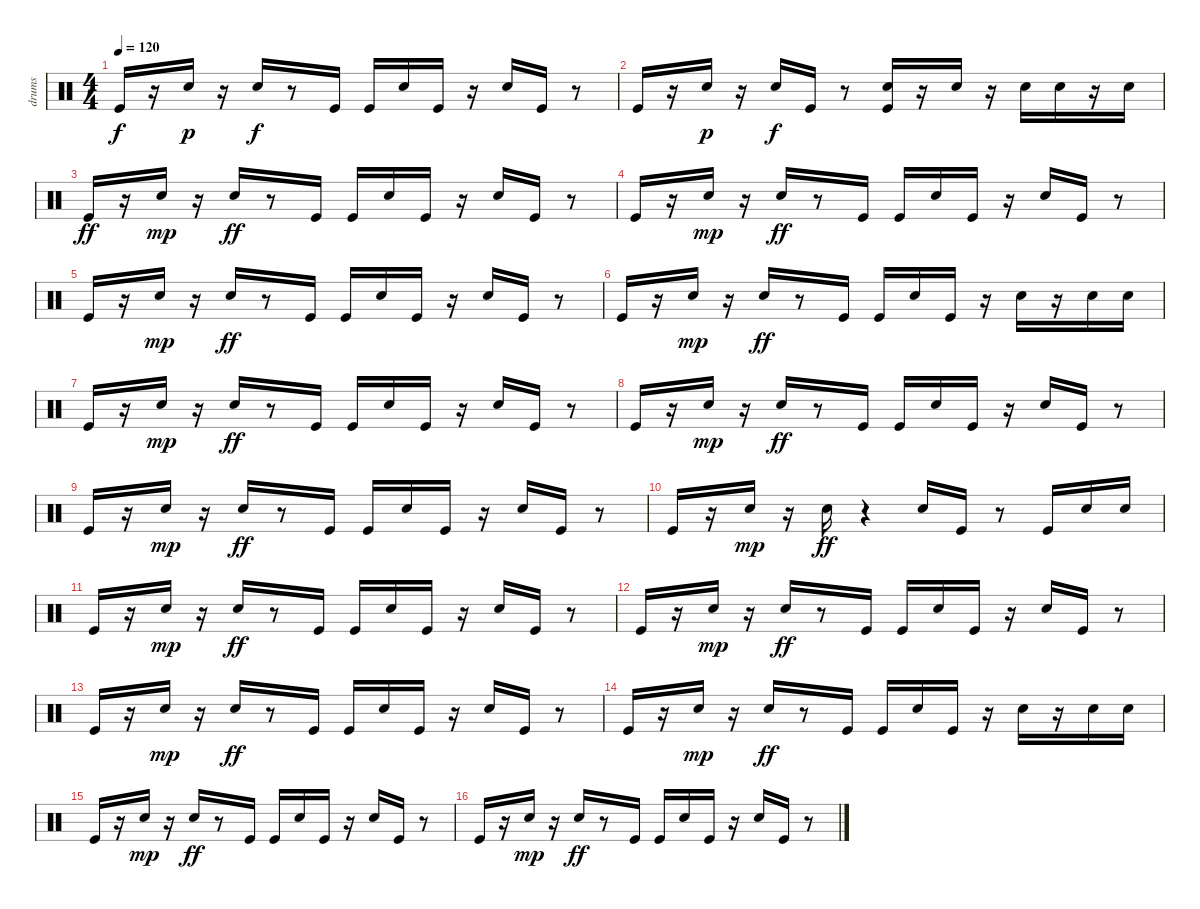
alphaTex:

\track ("drums" "drums") {instrument percussion}
\staff {score}
\articulation defaults
\ts (4 4)
\tempo 120
\clef neutral
\ks c "Kick (hit)".16{dy f}
r.16 "Electric Snare (hit)".16{dy p} r.16 "Electric Snare (hit)".16{dy f} r.8 "Kick (hit)".16 "Kick (hit)".16 "Electric Snare (hit)".16 "Kick (hit)".16 r.16 "Electric Snare (hit)".16 "Kick (hit)".16 r.8 |
"Kick (hit)".16 r.16 "Electric Snare (hit)".16{dy p} r.16 "Electric Snare (hit)".16{dy f} "Kick (hit)".16 r.8 ("Electric Snare (hit)" "Kick (hit)").16 r.16 "Electric Snare (hit)".16 r.16 "Electric Snare (hit)".16 "Electric Snare (hit)".16 r.16 "Electric Snare (hit)".16 |
"Kick (hit)".16{dy ff} r.16 "Electric Snare (hit)".16{dy mp} r.16 "Electric Snare (hit)".16{dy ff} r.8 "Kick (hit)".16 "Kick (hit)".16 "Electric Snare (hit)".16 "Kick (hit)".16 r.16 "Electric Snare (hit)".16 "Kick (hit)".16 r.8 |
"Kick (hit)".16 r.16 "Electric Snare (hit)".16{dy mp} r.16 "Electric Snare (hit)".16{dy ff} r.8 "Kick (hit)".16 "Kick (hit)".16 "Electric Snare (hit)".16 "Kick (hit)".16 r.16 "Electric Snare (hit)".16 "Kick (hit)".16 r.8 |
"Kick (hit)".16 r.16 "Electric Snare (hit)".16{dy mp} r.16 "Electric Snare (hit)".16{dy ff} r.8 "Kick (hit)".16 "Kick (hit)".16 "Electric Snare (hit)".16 "Kick (hit)".16 r.16 "Electric Snare (hit)".16 "Kick (hit)".16 r.8 |
"Kick (hit)".16 r.16 "Electric Snare (hit)".16{dy mp} r.16 "Electric Snare (hit)".16{dy ff} r.8 "Kick (hit)".16 "Kick (hit)".16 "Electric Snare (hit)".16 "Kick (hit)".16 r.16 "Electric Snare (hit)".16 r.16 "Electric Snare (hit)".16 "Electric Snare (hit)".16 |
"Kick (hit)".16 r.16 "Electric Snare (hit)".16{dy mp} r.16 "Electric Snare (hit)".16{dy ff} r.8 "Kick (hit)".16 "Kick (hit)".16 "Electric Snare (hit)".16 "Kick (hit)".16 r.16 "Electric Snare (hit)".16 "Kick (hit)".16 r.8 |
"Kick (hit)".16 r.16 "Electric Snare (hit)".16{dy mp} r.16 "Electric Snare (hit)".16{dy ff} r.8 "Kick (hit)".16 "Kick (hit)".16 "Electric Snare (hit)".16 "Kick (hit)".16 r.16 "Electric Snare (hit)".16 "Kick (hit)".16 r.8 |
"Kick (hit)".16 r.16 "Electric Snare (hit)".16{dy mp} r.16 "Electric Snare (hit)".16{dy ff} r.8 "Kick (hit)".16 "Kick (hit)".16 "Electric Snare (hit)".16 "Kick (hit)".16 r.16 "Electric Snare (hit)".16 "Kick (hit)".16 r.8 |
"Kick (hit)".16 r.16 "Electric Snare (hit)".16{dy mp} r.16 "Electric Snare (hit)".16{dy ff} r.4 "Electric Snare (hit)".16 "Kick (hit)".16 r.8 "Kick (hit)".16 "Electric Snare (hit)".16 "Electric Snare (hit)".16 |
"Kick (hit)".16 r.16 "Electric Snare (hit)".16{dy mp} r.16 "Electric Snare (hit)".16{dy ff} r.8 "Kick (hit)".16 "Kick (hit)".16 "Electric Snare (hit)".16 "Kick (hit)".16 r.16 "Electric Snare (hit)".16 "Kick (hit)".16 r.8 |
"Kick (hit)".16 r.16 "Electric Snare (hit)".16{dy mp} r.16 "Electric Snare (hit)".16{dy ff} r.8 "Kick (hit)".16 "Kick (hit)".16 "Electric Snare (hit)".16 "Kick (hit)".16 r.16 "Electric Snare (hit)".16 "Kick (hit)".16 r.8 |
"Kick (hit)".16 r.16 "Electric Snare (hit)".16{dy mp} r.16 "Electric Snare (hit)".16{dy ff} r.8 "Kick (hit)".16 "Kick (hit)".16 "Electric Snare (hit)".16 "Kick (hit)".16 r.16 "Electric Snare (hit)".16 "Kick (hit)".16 r.8 |
"Kick (hit)".16 r.16 "Electric Snare (hit)".16{dy mp} r.16 "Electric Snare (hit)".16{dy ff} r.8 "Kick (hit)".16 "Kick (hit)".16 "Electric Snare (hit)".16 "Kick (hit)".16 r.16 "Electric Snare (hit)".16 r.16 "Electric Snare (hit)".16 "Electric Snare (hit)".16 |
"Kick (hit)".16 r.16 "Electric Snare (hit)".16{dy mp} r.16 "Electric Snare (hit)".16{dy ff} r.8 "Kick (hit)".16 "Kick (hit)".16 "Electric Snare (hit)".16 "Kick (hit)".16 r.16 "Electric Snare (hit)".16 "Kick (hit)".16 r.8 |
"Kick (hit)".16 r.16 "Electric Snare (hit)".16{dy mp} r.16 "Electric Snare (hit)".16{dy ff} r.8 "Kick (hit)".16 "Kick (hit)".16 "Electric Snare (hit)".16 "Kick (hit)".16 r.16 "Electric Snare (hit)".16 "Kick (hit)".16 r.8
